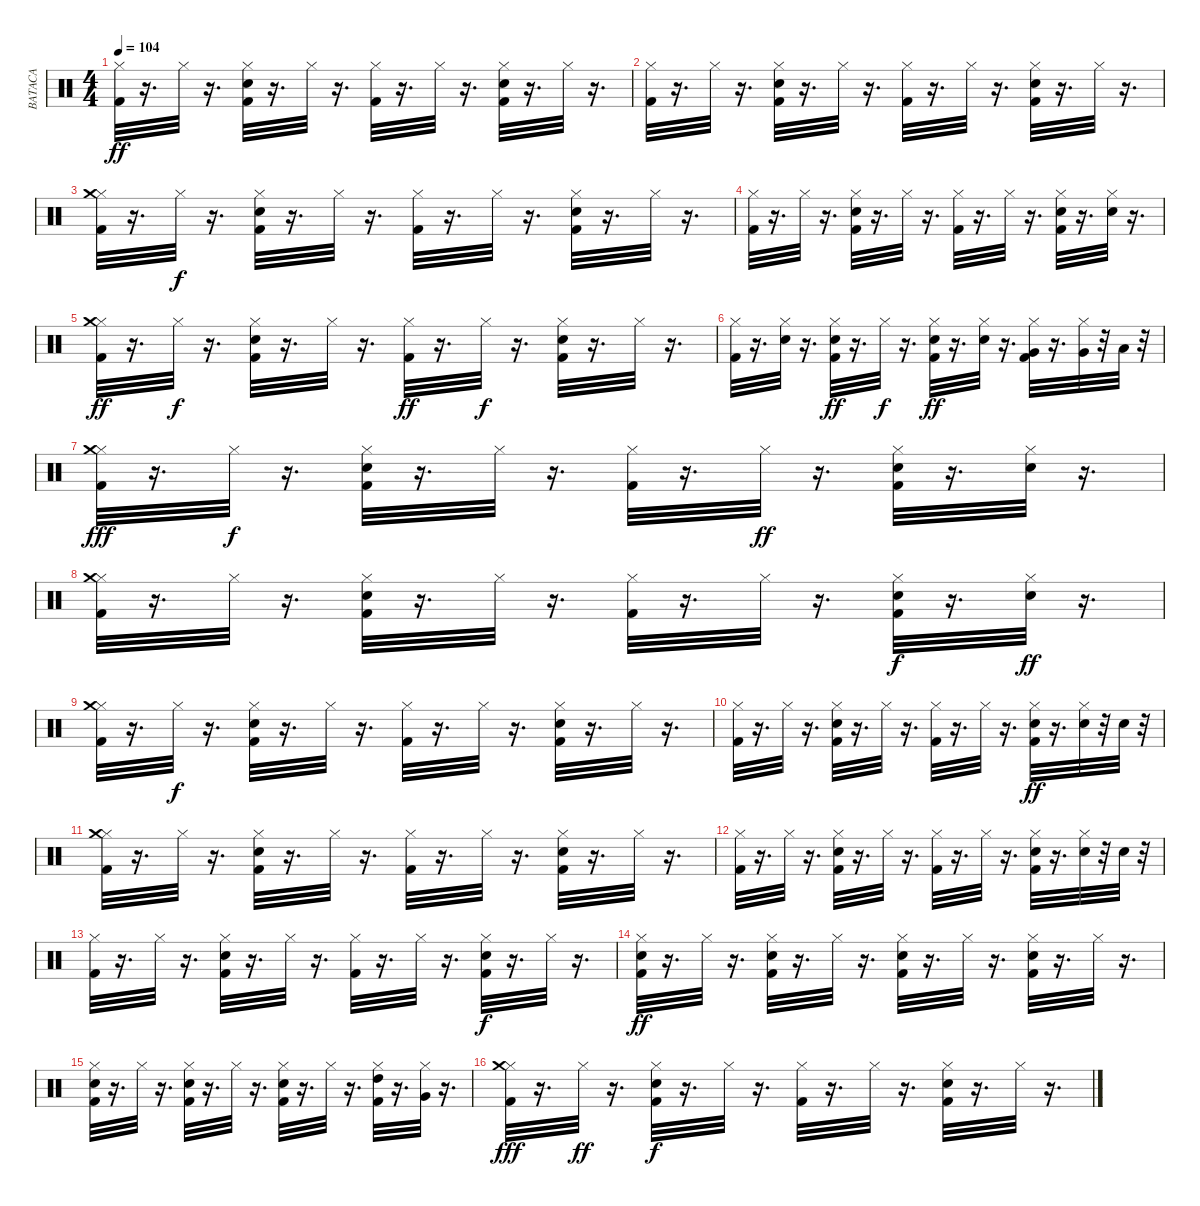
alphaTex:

\track ("BATACA" "BATACA") {instrument percussion}
\staff {score}
\articulation defaults
\ts (4 4)
\tempo 104
\clef neutral
\ks c
("Hi-Hat (closed)" "Kick (hit) 2").32{dy ff} r.16{d} "Hi-Hat (closed)".32 r.16{d} ("Hi-Hat (closed)" "Kick (hit) 2" "Electric Snare (hit)").32 r.16{d} "Hi-Hat (closed)".32 r.16{d} ("Hi-Hat (closed)" "Kick (hit) 2").32 r.16{d} "Hi-Hat (closed)".32 r.16{d} ("Hi-Hat (closed)" "Kick (hit) 2" "Electric Snare (hit)").32 r.16{d} "Hi-Hat (closed)".32 r.16{d} |
("Hi-Hat (closed)" "Kick (hit) 2").32 r.16{d} "Hi-Hat (closed)".32 r.16{d} ("Hi-Hat (closed)" "Kick (hit) 2" "Electric Snare (hit)").32 r.16{d} "Hi-Hat (closed)".32 r.16{d} ("Hi-Hat (closed)" "Kick (hit) 2").32 r.16{d} "Hi-Hat (closed)".32 r.16{d} ("Hi-Hat (closed)" "Kick (hit) 2" "Electric Snare (hit)").32 r.16{d} "Hi-Hat (closed)".32 r.16{d} |
("Hi-Hat (closed)" "Kick (hit) 2" "Crash medium (hit)").32 r.16{d} "Hi-Hat (closed)".32{dy f} r.16{d} ("Hi-Hat (closed)" "Kick (hit) 2" "Electric Snare (hit)").32 r.16{d} "Hi-Hat (closed)".32 r.16{d} ("Hi-Hat (closed)" "Kick (hit) 2").32 r.16{d} "Hi-Hat (closed)".32 r.16{d} ("Hi-Hat (closed)" "Kick (hit) 2" "Electric Snare (hit)").32 r.16{d} "Hi-Hat (closed)".32 r.16{d} |
("Hi-Hat (closed)" "Kick (hit) 2").32 r.16{d} "Hi-Hat (closed)".32 r.16{d} ("Hi-Hat (closed)" "Kick (hit) 2" "Electric Snare (hit)").32 r.16{d} "Hi-Hat (closed)".32 r.16{d} ("Hi-Hat (closed)" "Kick (hit) 2").32 r.16{d} "Hi-Hat (closed)".32 r.16{d} ("Hi-Hat (closed)" "Kick (hit) 2" "Electric Snare (hit)").32 r.16{d} ("Hi-Hat (closed)" "Electric Snare (hit)").32 r.16{d} |
("Hi-Hat (closed)" "Kick (hit) 2" "Crash medium (hit)").32{dy ff} r.16{d} "Hi-Hat (closed)".32{dy f} r.16{d} ("Hi-Hat (closed)" "Kick (hit) 2" "Electric Snare (hit)").32 r.16{d} "Hi-Hat (closed)".32 r.16{d} ("Hi-Hat (closed)" "Kick (hit) 2").32{dy ff} r.16{d} "Hi-Hat (closed)".32{dy f} r.16{d} ("Hi-Hat (closed)" "Kick (hit) 2" "Electric Snare (hit)").32 r.16{d} "Hi-Hat (closed)".32 r.16{d} |
("Hi-Hat (closed)" "Kick (hit) 2").32 r.16{d} ("Hi-Hat (closed)" "Electric Snare (hit)").32 r.16{d} ("Hi-Hat (closed)" "Kick (hit) 2" "Electric Snare (hit)").32{dy ff} r.16{d} "Hi-Hat (closed)".32{dy f} r.16{d} ("Hi-Hat (closed)" "Kick (hit) 2" "Electric Snare (hit)").32{dy ff} r.16{d} ("Hi-Hat (closed)" "Electric Snare (hit)").32 r.16{d} ("Hi-Hat (closed)" "Kick (hit) 2" "Very Low Tom (hit)").32 r.16{d} ("Hi-Hat (closed)" "Very Low Tom (hit)").32 r.32 "Low Floor Tom (hit)".32 r.32 |
("Hi-Hat (closed)" "Kick (hit) 2" "Crash medium (hit)").32{dy fff} r.16{d} "Hi-Hat (closed)".32{dy f} r.16{d} ("Hi-Hat (closed)" "Kick (hit) 2" "Electric Snare (hit)").32 r.16{d} "Hi-Hat (closed)".32 r.16{d} ("Hi-Hat (closed)" "Kick (hit) 2").32 r.16{d} "Hi-Hat (closed)".32{dy ff} r.16{d} ("Hi-Hat (closed)" "Kick (hit) 2" "Electric Snare (hit)").32 r.16{d} ("Hi-Hat (closed)" "Electric Snare (hit)").32 r.16{d} |
("Hi-Hat (closed)" "Kick (hit) 2" "Crash medium (hit)").32 r.16{d} "Hi-Hat (closed)".32 r.16{d} ("Hi-Hat (closed)" "Kick (hit) 2" "Electric Snare (hit)").32 r.16{d} "Hi-Hat (closed)".32 r.16{d} ("Hi-Hat (closed)" "Kick (hit) 2").32 r.16{d} "Hi-Hat (closed)".32 r.16{d} ("Hi-Hat (closed)" "Kick (hit) 2" "Electric Snare (hit)").32{dy f} r.16{d} ("Hi-Hat (closed)" "Electric Snare (hit)").32{dy ff} r.16{d} |
("Hi-Hat (closed)" "Kick (hit) 2" "Crash medium (hit)").32 r.16{d} "Hi-Hat (closed)".32{dy f} r.16{d} ("Hi-Hat (closed)" "Kick (hit) 2" "Electric Snare (hit)").32 r.16{d} "Hi-Hat (closed)".32 r.16{d} ("Hi-Hat (closed)" "Kick (hit) 2").32 r.16{d} "Hi-Hat (closed)".32 r.16{d} ("Hi-Hat (closed)" "Kick (hit) 2" "Electric Snare (hit)").32 r.16{d} "Hi-Hat (closed)".32 r.16{d} |
("Hi-Hat (closed)" "Kick (hit) 2").32 r.16{d} "Hi-Hat (closed)".32 r.16{d} ("Hi-Hat (closed)" "Kick (hit) 2" "Electric Snare (hit)").32 r.16{d} "Hi-Hat (closed)".32 r.16{d} ("Hi-Hat (closed)" "Kick (hit) 2").32 r.16{d} "Hi-Hat (closed)".32 r.16{d} ("Hi-Hat (closed)" "Kick (hit) 2" "Electric Snare (hit)").32{dy ff} r.16{d} ("Hi-Hat (closed)" "Electric Snare (hit)").32 r.32 "Electric Snare (hit)".32 r.32 |
("Hi-Hat (closed)" "Kick (hit) 2" "Crash medium (hit)").32 r.16{d} "Hi-Hat (closed)".32 r.16{d} ("Hi-Hat (closed)" "Kick (hit) 2" "Electric Snare (hit)").32 r.16{d} "Hi-Hat (closed)".32 r.16{d} ("Hi-Hat (closed)" "Kick (hit) 2").32 r.16{d} "Hi-Hat (closed)".32 r.16{d} ("Hi-Hat (closed)" "Kick (hit) 2" "Electric Snare (hit)").32 r.16{d} "Hi-Hat (closed)".32 r.16{d} |
("Hi-Hat (closed)" "Kick (hit) 2").32 r.16{d} "Hi-Hat (closed)".32 r.16{d} ("Hi-Hat (closed)" "Kick (hit) 2" "Electric Snare (hit)").32 r.16{d} "Hi-Hat (closed)".32 r.16{d} ("Hi-Hat (closed)" "Kick (hit) 2").32 r.16{d} "Hi-Hat (closed)".32 r.16{d} ("Hi-Hat (closed)" "Kick (hit) 2" "Electric Snare (hit)").32 r.16{d} ("Hi-Hat (closed)" "Electric Snare (hit)").32 r.32 "Electric Snare (hit)".32 r.32 |
("Hi-Hat (closed)" "Kick (hit) 2").32 r.16{d} "Hi-Hat (closed)".32 r.16{d} ("Hi-Hat (closed)" "Kick (hit) 2" "Electric Snare (hit)").32 r.16{d} "Hi-Hat (closed)".32 r.16{d} ("Hi-Hat (closed)" "Kick (hit) 2").32 r.16{d} "Hi-Hat (closed)".32 r.16{d} ("Hi-Hat (closed)" "Kick (hit) 2" "Electric Snare (hit)").32{dy f} r.16{d} "Hi-Hat (closed)".32 r.16{d} |
("Hi-Hat (closed)" "Kick (hit) 2" "Electric Snare (hit)").32{dy ff} r.16{d} "Hi-Hat (closed)".32 r.16{d} ("Hi-Hat (closed)" "Kick (hit) 2" "Electric Snare (hit)").32 r.16{d} "Hi-Hat (closed)".32 r.16{d} ("Hi-Hat (closed)" "Kick (hit) 2" "Electric Snare (hit)").32 r.16{d} "Hi-Hat (closed)".32 r.16{d} ("Hi-Hat (closed)" "Kick (hit) 2" "Electric Snare (hit)").32 r.16{d} "Hi-Hat (closed)".32 r.16{d} |
("Hi-Hat (closed)" "Kick (hit) 2" "Electric Snare (hit)").32 r.16{d} "Hi-Hat (closed)".32 r.16{d} ("Hi-Hat (closed)" "Kick (hit) 2" "Electric Snare (hit)").32 r.16{d} "Hi-Hat (closed)".32 r.16{d} ("Hi-Hat (closed)" "Kick (hit) 2" "Electric Snare (hit)").32 r.16{d} "Hi-Hat (closed)".32 r.16{d} ("Hi-Hat (closed)" "Kick (hit) 2" "High Tom (hit)").32 r.16{d} ("Hi-Hat (closed)" "Very Low Tom (hit)").32 r.16{d} |
("Hi-Hat (closed)" "Kick (hit) 2" "Crash medium (hit)").32{dy fff} r.16{d} "Hi-Hat (closed)".32{dy ff} r.16{d} ("Hi-Hat (closed)" "Kick (hit) 2" "Electric Snare (hit)").32{dy f} r.16{d} "Hi-Hat (closed)".32 r.16{d} ("Hi-Hat (closed)" "Kick (hit) 2").32 r.16{d} "Hi-Hat (closed)".32 r.16{d} ("Hi-Hat (closed)" "Kick (hit) 2" "Electric Snare (hit)").32 r.16{d} "Hi-Hat (closed)".32 r.16{d}
